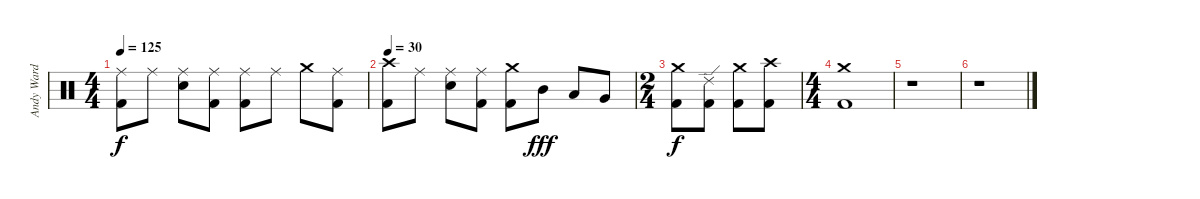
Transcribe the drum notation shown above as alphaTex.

\track ("Andy Ward" "Andy Ward") {instrument percussion}
\staff {score}
\articulation defaults
\ts (4 4)
\tempo 125
\clef neutral
\ks c
("Ride (middle)" "Kick (hit) 2").8{dy f} "Ride (middle)".8 ("Ride (middle)" "Snare (hit) 2").8 ("Ride (middle)" "Kick (hit) 2").8 ("Ride (middle)" "Kick (hit) 2").8 "Ride (middle)".8 "Crash medium (hit)".8 ("Ride (middle)" "Kick (hit) 2").8 |
\tempo 30
("Crash high (hit)" "Kick (hit) 2").8 "Ride (middle)".8 ("Ride (middle)" "Snare (hit) 2").8 ("Ride (middle)" "Kick (hit) 2").8 ("Crash medium (hit)" "Kick (hit) 2").8 "Mid Tom (hit)".8{dy fff} "Low Tom (hit)".8 "Very Low Tom (hit)".8 |
\ts (2 4)
("Crash medium (hit)" "Kick (hit) 2").8{dy f} ("Ride (edge) 2" "Kick (hit) 2").8 ("Crash medium (hit)" "Kick (hit) 2").8 ("Crash high (hit)" "Kick (hit) 2").8 |
\ts (4 4)
("Crash medium (hit)" "Kick (hit) 2").1 |
r.1 |
r.1
